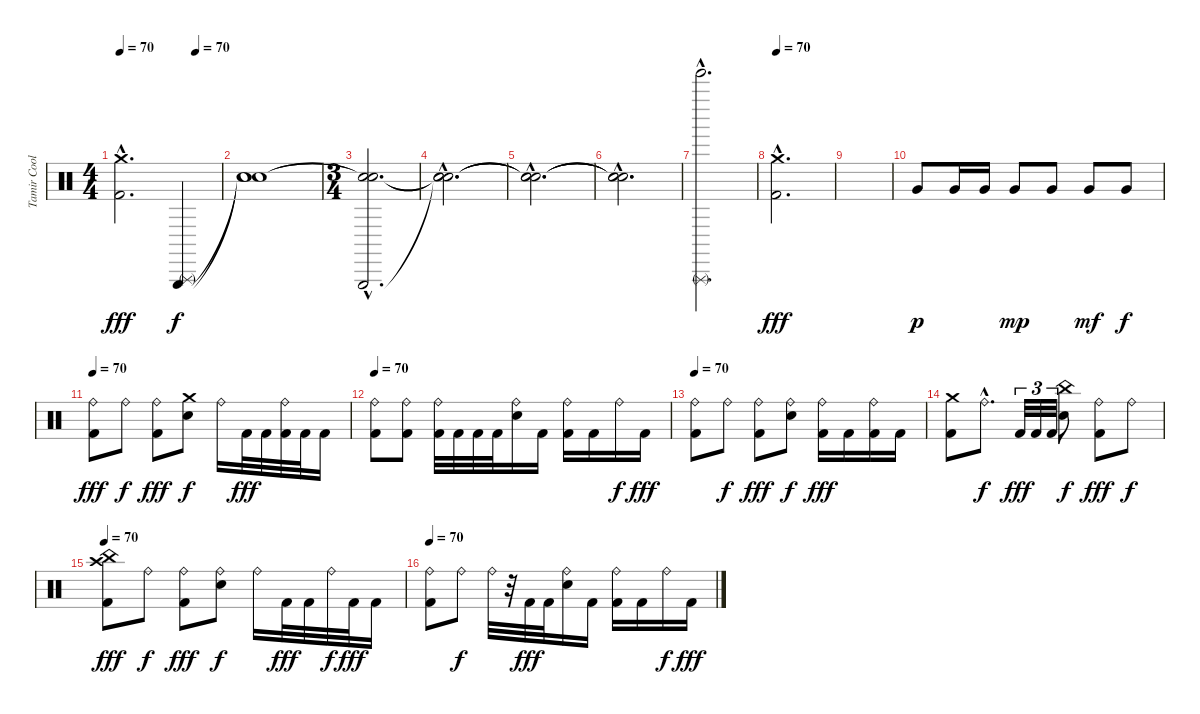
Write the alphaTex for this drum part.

\track ("Tamir Coolberg" "Tamir Cool") {instrument percussion}
\staff {score}
\articulation defaults
\ts (4 4)
\tempo 70
\tempo (70 0.75)
\clef neutral
\ks c
("Crash medium (hit)"{hac} "Kick (hit) 2"{hac}).2{d dy fff} ("Triangle (hit)" "Triangle (rnute)").4{dy f} |
("Snare (hit)"{t} "Snare (hit)"{t} "Snare (hit)").1 |
\ts (3 4)
("Snare (hit)"{hac t} "Snare (hit)"{hac t} "Triangle (hit)"{hac}).2{d} |
("Snare (hit)"{hac t} "Snare (hit)"{hac t} "Snare (hit)"{hac t}).2{d} |
("Snare (hit)"{hac t} "Snare (hit)"{hac t} "Snare (hit)"{hac t}).2{d} |
("Snare (hit)"{hac t} "Snare (hit)"{hac t} "Snare (hit)"{hac t}).2{d} |
("Tinkle Bell (hit)"{hac} "Triangle (rnute)"{hac}).2{d} |
\tempo 70
("Crash medium (hit)"{hac} "Kick (hit) 2"{hac}).2{d dy fff} |
|
"Very Low Tom (hit)".8{dy p} "Very Low Tom (hit)".16 "Very Low Tom (hit)".16 "Very Low Tom (hit)".8{dy mp} "Very Low Tom (hit)".8 "Very Low Tom (hit)".8{dy mf} "Very Low Tom (hit)".8{dy f} |
\tempo 70
("Ride (bell)" "Kick (hit) 2").8{dy fff} "Ride (bell)".8{dy f} ("Ride (bell)" "Kick (hit) 2").8{dy fff} ("Crash medium (hit)" "Electric Snare (hit)").8{dy f} "Ride (bell)".16 "Kick (hit) 2".32{dy fff} "Kick (hit) 2".32 ("Ride (bell)" "Kick (hit) 2").32 "Kick (hit) 2".32 "Kick (hit) 2".16 |
\tempo 70
("Ride (bell)" "Kick (hit) 2").8 ("Ride (bell)" "Kick (hit) 2").8 ("Ride (bell)" "Kick (hit) 2").32 "Kick (hit) 2".32 "Kick (hit) 2".32 "Kick (hit) 2".32 ("Ride (bell)" "Electric Snare (hit)").16 "Kick (hit) 2".16 ("Ride (bell)" "Kick (hit) 2").16 "Kick (hit) 2".16 "Ride (bell)".16{dy f} "Kick (hit) 2".16{dy fff} |
\tempo 70
("Ride (bell)" "Kick (hit) 2").8 "Ride (bell)".8{dy f} ("Ride (bell)" "Kick (hit) 2").8{dy fff} ("Ride (bell)" "Electric Snare (hit)").8{dy f} ("Ride (bell)" "Kick (hit) 2").16{dy fff} "Kick (hit) 2".16 ("Ride (bell)" "Kick (hit) 2").16 "Kick (hit) 2".16 |
("Crash medium (hit)" "Kick (hit) 2").8 "Ride (bell)"{hac}.8{d dy f} "Kick (hit) 2".32{tu (3 2) dy fff} "Kick (hit) 2".32{tu (3 2)} "Kick (hit) 2".32{tu (3 2)} ("China (hit)" "Electric Snare (hit)").8{dy f} ("Ride (bell)" "Kick (hit) 2").8{dy fff} "Ride (bell)".8{dy f} |
\tempo 70
("China (hit)" "Crash high (hit)" "Kick (hit) 2").8{dy fff} "Ride (bell)".8{dy f} ("Ride (bell)" "Kick (hit) 2").8{dy fff} ("Ride (bell)" "Electric Snare (hit)").8{dy f} "Ride (bell)".16 "Kick (hit) 2".32{dy fff} "Kick (hit) 2".32 "Ride (bell)".32{dy f} "Kick (hit) 2".32{dy fff} "Kick (hit) 2".16 |
\tempo 70
("Ride (bell)" "Kick (hit) 2").8 "Ride (bell)".8{dy f} "Ride (bell)".32 r.32 "Kick (hit) 2".32{dy fff} "Kick (hit) 2".32 ("Ride (bell)" "Electric Snare (hit)").16 "Kick (hit) 2".16 ("Ride (bell)" "Kick (hit) 2").16 "Kick (hit) 2".16 "Ride (bell)".16{dy f} "Kick (hit) 2".16{dy fff}
